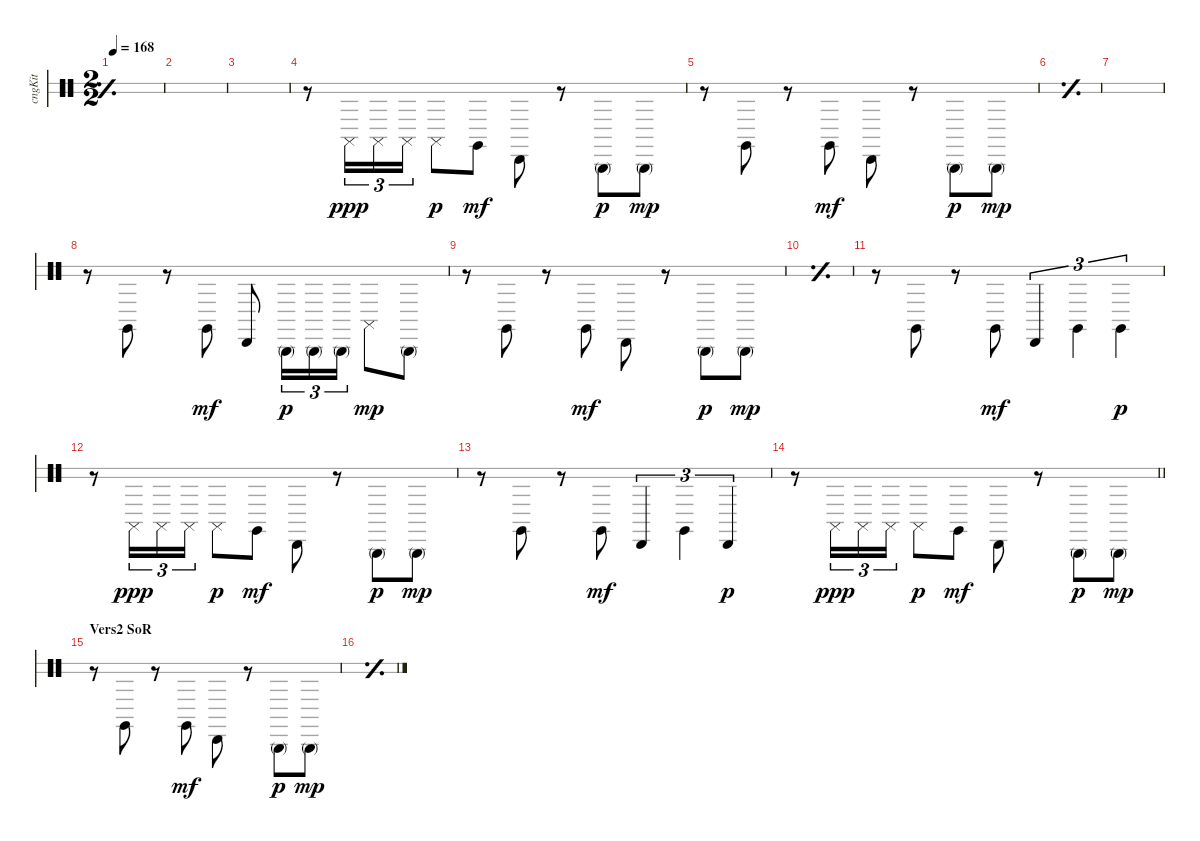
\bracketExtendMode groupsimilarinstruments
\multiTrackTrackNamePolicy hidden
\otherSystemsTrackNameOrientation horizontal
\track ("Congas" "cngKit") {instrument percussion}
\staff {score 2}
\articulation defaults
\ts (2 2)
\tempo 168
\clef neutral
\simile simple
\ks c
|
|
|
r.8{beam Down} "Conga high (slap)".16{tu (3 2) dy ppp beam Down} "Conga high (slap)".16{tu (3 2) beam Down} "Conga high (slap)".16{tu (3 2) beam Down} "Conga high (slap)".8{dy p beam Down} "Conga high (hit)".8{dy mf beam Down} "Conga low (hit)".8{beam Down} r.8{beam Down} "Conga high (mute)".8{dy p beam Down} "Conga high (mute)".8{dy mp beam Down} |
r.8{beam Down} "Conga high (hit)".8{beam Down} r.8{beam Down} "Conga high (hit)".8{dy mf beam Down} "Conga low (hit)".8{beam Down} r.8{beam Down} "Conga high (mute)".8{dy p beam Down} "Conga high (mute)".8{dy mp beam Down} |
\simile simple
|
|
\simile none
r.8{beam Down} "Conga high (hit)".8{beam Down} r.8{beam Down} "Conga high (hit)".8{dy mf beam Down} "Conga low (hit)".8{beam Up} "Conga high (mute)".16{tu (3 2) dy p beam Down} "Conga high (mute)".16{tu (3 2) beam Down} "Conga high (mute)".16{tu (3 2) beam Down} "Conga high (slap)".8{dy mp beam Down} "Conga high (mute)".8{beam Down} |
r.8{beam Down} "Conga high (hit)".8{beam Down} r.8{beam Down} "Conga high (hit)".8{dy mf beam Down} "Conga low (hit)".8{beam Down} r.8{beam Down} "Conga high (mute)".8{dy p beam Down} "Conga high (mute)".8{dy mp beam Down} |
\simile simple
|
\simile none
r.8{beam Down} "Conga high (hit)".8{beam Down} r.8{beam Down} "Conga high (hit)".8{dy mf beam Down} "Conga low (hit)".4{tu (3 2) beam Up} "Conga high (hit)".4{tu (3 2) beam Down} "Conga high (hit)".4{tu (3 2) dy p beam Down} |
r.8{beam Down} "Conga high (slap)".16{tu (3 2) dy ppp beam Down} "Conga high (slap)".16{tu (3 2) beam Down} "Conga high (slap)".16{tu (3 2) beam Down} "Conga high (slap)".8{dy p beam Down} "Conga high (hit)".8{dy mf beam Down} "Conga low (hit)".8{beam Down} r.8{beam Down} "Conga high (mute)".8{dy p beam Down} "Conga high (mute)".8{dy mp beam Down} |
r.8{beam Down} "Conga high (hit)".8{beam Down} r.8{beam Down} "Conga high (hit)".8{dy mf beam Down} "Conga low (hit)".4{tu (3 2) beam Up} "Conga high (hit)".4{tu (3 2) beam Down} "Conga low (hit)".4{tu (3 2) dy p beam Up} |
\barLineRight lightlight
r.8{beam Down} "Conga high (slap)".16{tu (3 2) dy ppp beam Down} "Conga high (slap)".16{tu (3 2) beam Down} "Conga high (slap)".16{tu (3 2) beam Down} "Conga high (slap)".8{dy p beam Down} "Conga high (hit)".8{dy mf beam Down} "Conga low (hit)".8{beam Down} r.8{beam Down} "Conga high (mute)".8{dy p beam Down} "Conga high (mute)".8{dy mp beam Down} |
\section ("" "Vers2 SoR")
r.8{beam Down} "Conga high (hit)".8{beam Down} r.8{beam Down} "Conga high (hit)".8{dy mf beam Down} "Conga low (hit)".8{beam Down} r.8{beam Down} "Conga high (mute)".8{dy p beam Down} "Conga high (mute)".8{dy mp beam Down} |
\simile simple
